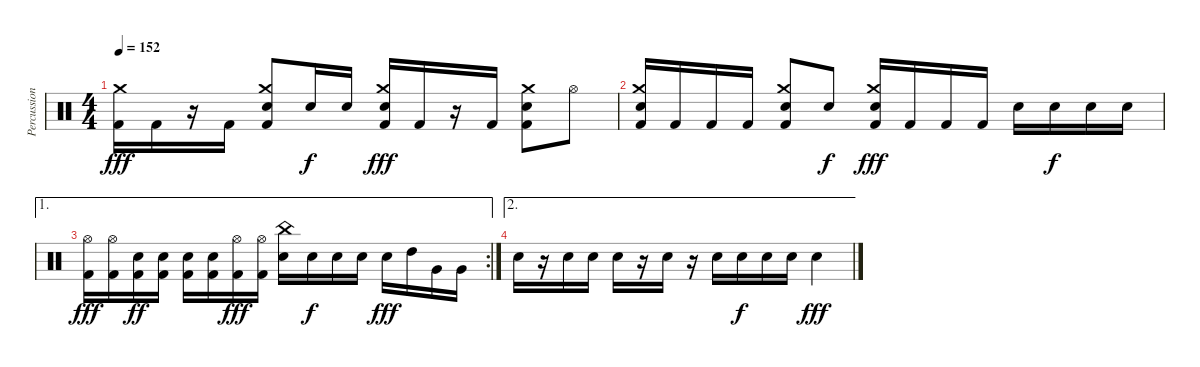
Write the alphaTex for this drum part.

\track ("Percussion" "Percussion") {instrument percussion}
\staff {score}
\articulation defaults
\ts (4 4)
\tempo 152
\clef neutral
\ks c
("Kick (hit) 2" "Crash medium (hit)").16{dy fff} "Kick (hit) 2".16 r.16 "Kick (hit) 2".16 ("Kick (hit) 2" "Crash medium (hit)" "Electric Snare (hit)").8 "Electric Snare (hit)".16{dy f} "Electric Snare (hit)".16 ("Kick (hit) 2" "Electric Snare (hit)" "Crash medium (hit)").16{dy fff} "Kick (hit) 2".16 r.16 "Kick (hit) 2".16 ("Kick (hit) 2" "Crash medium (hit)" "Electric Snare (hit)").8 "Hi-Hat (open)".8 |
("Crash medium (hit)" "Kick (hit) 2" "Electric Snare (hit)").16 "Kick (hit) 2".16 "Kick (hit) 2".16 "Kick (hit) 2".16 ("Kick (hit) 2" "Crash medium (hit)" "Electric Snare (hit)").8 "Electric Snare (hit)".8{dy f} ("Kick (hit) 2" "Electric Snare (hit)" "Crash medium (hit)").16{dy fff} "Kick (hit) 2".16 "Kick (hit) 2".16 "Kick (hit) 2".16 "Electric Snare (hit)".16 "Electric Snare (hit)".16{dy f} "Electric Snare (hit)".16 "Electric Snare (hit)".16 |
\ae 1
\rc 2
("Hi-Hat (open)" "Kick (hit) 2").16{dy fff} ("Hi-Hat (open)" "Kick (hit) 2").16 ("Kick (hit) 2" "Electric Snare (hit)").16{dy ff} ("Kick (hit) 2" "Electric Snare (hit)").16 ("Kick (hit) 2" "Electric Snare (hit)").16 ("Kick (hit) 2" "Electric Snare (hit)").16 ("Kick (hit) 2" "Hi-Hat (open)").16{dy fff} ("Kick (hit) 2" "Hi-Hat (open)").16 ("Electric Snare (hit)" "China (hit)").16 "Electric Snare (hit)".16{dy f} "Electric Snare (hit)".16 "Electric Snare (hit)".16 "Electric Snare (hit)".16{dy fff} "High Tom (hit)".16 "Very Low Tom (hit)".16 "Very Low Tom (hit)".16 |
\ae 2 "Electric Snare (hit)".16
r.16 "Electric Snare (hit)".16 "Electric Snare (hit)".16 "Electric Snare (hit)".16 r.16 "Electric Snare (hit)".16 r.16 "Electric Snare (hit)".16 "Electric Snare (hit)".16{dy f} "Electric Snare (hit)".16 "Electric Snare (hit)".16 "Electric Snare (hit)".4{dy fff}
